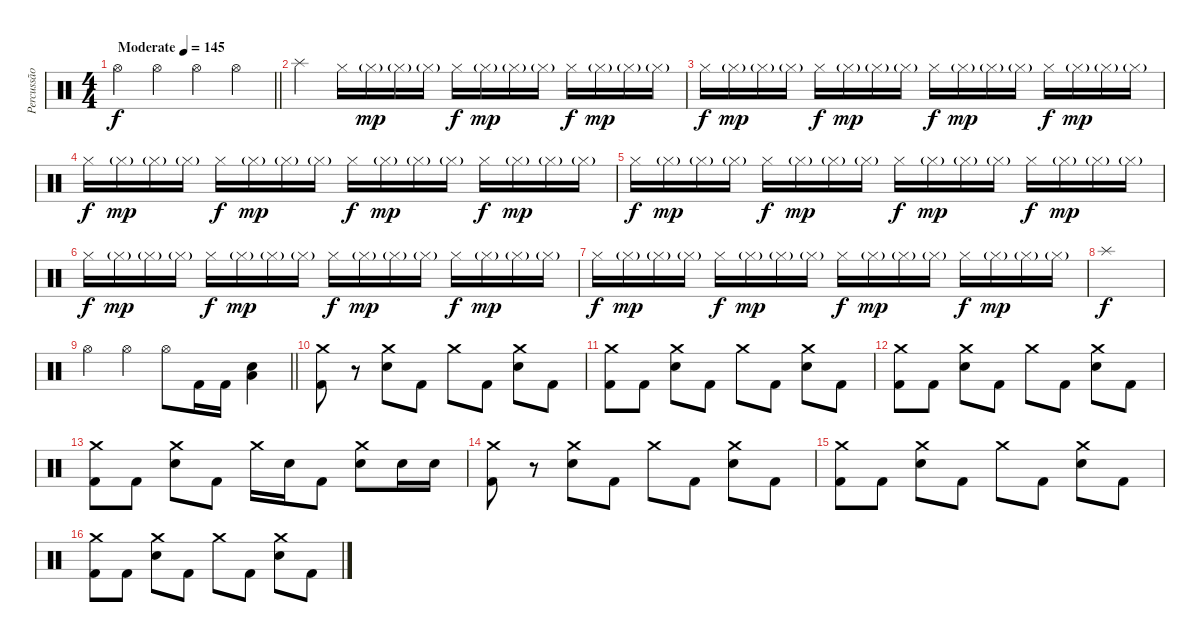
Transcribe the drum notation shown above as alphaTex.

\track ("Percussão" "Percussão") {instrument percussion}
\staff {score}
\articulation defaults
\ts (4 4)
\tempo (145 "Moderate")
\clef neutral
\barLineRight lightlight
\ks c "Hi-Hat (open)".4{dy f} "Hi-Hat (open)".4 "Hi-Hat (open)".4 "Hi-Hat (open)".4
|
"Splash (hit)".4 "Hi-Hat (closed)".16 "Hi-Hat (closed)"{g}.16{dy mp} "Hi-Hat (closed)"{g}.16 "Hi-Hat (closed)"{g}.16 "Hi-Hat (closed)".16{dy f} "Hi-Hat (closed)"{g}.16{dy mp} "Hi-Hat (closed)"{g}.16 "Hi-Hat (closed)"{g}.16 "Hi-Hat (closed)".16{dy f} "Hi-Hat (closed)"{g}.16{dy mp} "Hi-Hat (closed)"{g}.16 "Hi-Hat (closed)"{g}.16 |
"Hi-Hat (closed)".16{dy f} "Hi-Hat (closed)"{g}.16{dy mp} "Hi-Hat (closed)"{g}.16 "Hi-Hat (closed)"{g}.16 "Hi-Hat (closed)".16{dy f} "Hi-Hat (closed)"{g}.16{dy mp} "Hi-Hat (closed)"{g}.16 "Hi-Hat (closed)"{g}.16 "Hi-Hat (closed)".16{dy f} "Hi-Hat (closed)"{g}.16{dy mp} "Hi-Hat (closed)"{g}.16 "Hi-Hat (closed)"{g}.16 "Hi-Hat (closed)".16{dy f} "Hi-Hat (closed)"{g}.16{dy mp} "Hi-Hat (closed)"{g}.16 "Hi-Hat (closed)"{g}.16 |
"Hi-Hat (closed)".16{dy f} "Hi-Hat (closed)"{g}.16{dy mp} "Hi-Hat (closed)"{g}.16 "Hi-Hat (closed)"{g}.16 "Hi-Hat (closed)".16{dy f} "Hi-Hat (closed)"{g}.16{dy mp} "Hi-Hat (closed)"{g}.16 "Hi-Hat (closed)"{g}.16 "Hi-Hat (closed)".16{dy f} "Hi-Hat (closed)"{g}.16{dy mp} "Hi-Hat (closed)"{g}.16 "Hi-Hat (closed)"{g}.16 "Hi-Hat (closed)".16{dy f} "Hi-Hat (closed)"{g}.16{dy mp} "Hi-Hat (closed)"{g}.16 "Hi-Hat (closed)"{g}.16 |
"Hi-Hat (closed)".16{dy f} "Hi-Hat (closed)"{g}.16{dy mp} "Hi-Hat (closed)"{g}.16 "Hi-Hat (closed)"{g}.16 "Hi-Hat (closed)".16{dy f} "Hi-Hat (closed)"{g}.16{dy mp} "Hi-Hat (closed)"{g}.16 "Hi-Hat (closed)"{g}.16 "Hi-Hat (closed)".16{dy f} "Hi-Hat (closed)"{g}.16{dy mp} "Hi-Hat (closed)"{g}.16 "Hi-Hat (closed)"{g}.16 "Hi-Hat (closed)".16{dy f} "Hi-Hat (closed)"{g}.16{dy mp} "Hi-Hat (closed)"{g}.16 "Hi-Hat (closed)"{g}.16 |
"Hi-Hat (closed)".16{dy f} "Hi-Hat (closed)"{g}.16{dy mp} "Hi-Hat (closed)"{g}.16 "Hi-Hat (closed)"{g}.16 "Hi-Hat (closed)".16{dy f} "Hi-Hat (closed)"{g}.16{dy mp} "Hi-Hat (closed)"{g}.16 "Hi-Hat (closed)"{g}.16 "Hi-Hat (closed)".16{dy f} "Hi-Hat (closed)"{g}.16{dy mp} "Hi-Hat (closed)"{g}.16 "Hi-Hat (closed)"{g}.16 "Hi-Hat (closed)".16{dy f} "Hi-Hat (closed)"{g}.16{dy mp} "Hi-Hat (closed)"{g}.16 "Hi-Hat (closed)"{g}.16 |
"Hi-Hat (closed)".16{dy f} "Hi-Hat (closed)"{g}.16{dy mp} "Hi-Hat (closed)"{g}.16 "Hi-Hat (closed)"{g}.16 "Hi-Hat (closed)".16{dy f} "Hi-Hat (closed)"{g}.16{dy mp} "Hi-Hat (closed)"{g}.16 "Hi-Hat (closed)"{g}.16 "Hi-Hat (closed)".16{dy f} "Hi-Hat (closed)"{g}.16{dy mp} "Hi-Hat (closed)"{g}.16 "Hi-Hat (closed)"{g}.16 "Hi-Hat (closed)".16{dy f} "Hi-Hat (closed)"{g}.16{dy mp} "Hi-Hat (closed)"{g}.16 "Hi-Hat (closed)"{g}.16 |
"Splash (hit)".1{dy f} |
\barLineRight lightlight "Hi-Hat (open)".4 "Hi-Hat (open)".4 "Hi-Hat (open)".8 "Kick (hit) 2".16 "Kick (hit) 2".16
("Electric Snare (hit)" "Low Tom (hit)").4 |
("Crash medium (hit)" "Kick (hit) 2").8 r.8 ("Crash medium (hit)" "Electric Snare (hit)").8 "Kick (hit) 2".8 "Crash medium (hit)".8 "Kick (hit) 2".8 ("Crash medium (hit)" "Electric Snare (hit)").8 "Kick (hit) 2".8 |
("Crash medium (hit)" "Kick (hit) 2").8 "Kick (hit) 2".8 ("Crash medium (hit)" "Electric Snare (hit)").8 "Kick (hit) 2".8 "Crash medium (hit)".8 "Kick (hit) 2".8 ("Crash medium (hit)" "Electric Snare (hit)").8 "Kick (hit) 2".8 |
("Crash medium (hit)" "Kick (hit) 2").8 "Kick (hit) 2".8 ("Crash medium (hit)" "Electric Snare (hit)").8 "Kick (hit) 2".8 "Crash medium (hit)".8 "Kick (hit) 2".8 ("Crash medium (hit)" "Electric Snare (hit)").8 "Kick (hit) 2".8 |
("Crash medium (hit)" "Kick (hit) 2").8 "Kick (hit) 2".8 ("Crash medium (hit)" "Electric Snare (hit)").8 "Kick (hit) 2".8 "Crash medium (hit)".16 "Electric Snare (hit)".16 "Kick (hit) 2".8 ("Crash medium (hit)" "Electric Snare (hit)").8 "Electric Snare (hit)".16 "Electric Snare (hit)".16 |
("Crash medium (hit)" "Kick (hit) 2").8 r.8 ("Crash medium (hit)" "Electric Snare (hit)").8 "Kick (hit) 2".8 "Crash medium (hit)".8 "Kick (hit) 2".8 ("Crash medium (hit)" "Electric Snare (hit)").8 "Kick (hit) 2".8 |
("Crash medium (hit)" "Kick (hit) 2").8 "Kick (hit) 2".8 ("Crash medium (hit)" "Electric Snare (hit)").8 "Kick (hit) 2".8 "Crash medium (hit)".8 "Kick (hit) 2".8 ("Crash medium (hit)" "Electric Snare (hit)").8 "Kick (hit) 2".8 |
("Crash medium (hit)" "Kick (hit) 2").8 "Kick (hit) 2".8 ("Crash medium (hit)" "Electric Snare (hit)").8 "Kick (hit) 2".8 "Crash medium (hit)".8 "Kick (hit) 2".8 ("Crash medium (hit)" "Electric Snare (hit)").8 "Kick (hit) 2".8
